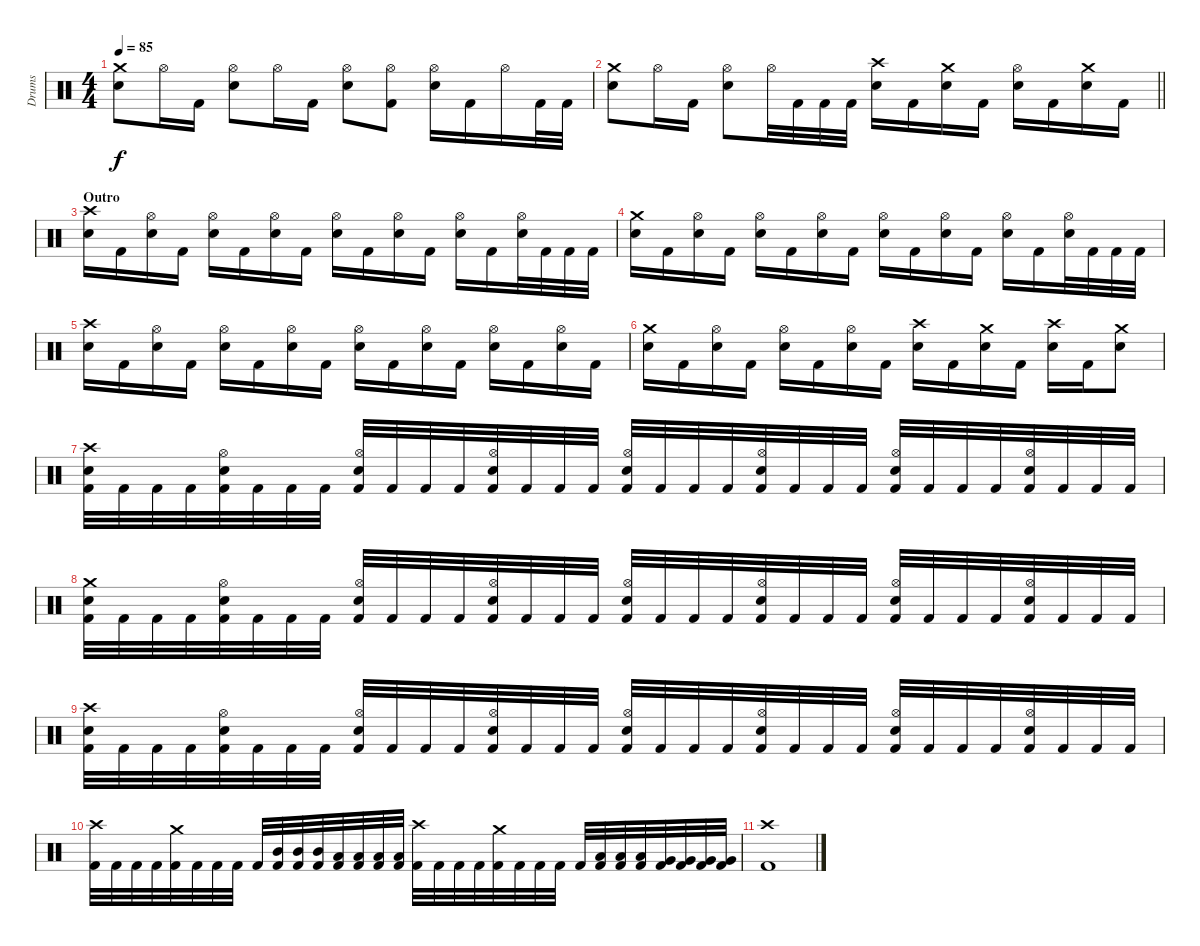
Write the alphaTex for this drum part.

\track ("Drums" "Drums") {instrument percussion}
\staff {score}
\articulation defaults
\ts (4 4)
\tempo 85
\clef neutral
\ks c
("Crash medium (hit)" "Electric Snare (hit)").8{dy f} "Hi-Hat (open)".16 "Kick (hit) 2".16 ("Hi-Hat (open)" "Electric Snare (hit)").8 "Hi-Hat (open)".16 "Kick (hit) 2".16 ("Hi-Hat (open)" "Electric Snare (hit)").8 ("Hi-Hat (open)" "Kick (hit) 2").8 ("Hi-Hat (open)" "Electric Snare (hit)").16 "Kick (hit) 2".16 "Hi-Hat (open)".16 "Kick (hit) 2".32 "Kick (hit) 2".32 |
\barLineRight lightlight
("Crash medium (hit)" "Electric Snare (hit)").8 "Hi-Hat (open)".16 "Kick (hit) 2".16 ("Hi-Hat (open)" "Electric Snare (hit)").8 "Hi-Hat (open)".32 "Kick (hit) 2".32 "Kick (hit) 2".32 "Kick (hit) 2".32 ("Crash high (hit)" "Electric Snare (hit)").16 "Kick (hit) 2".16 ("Crash medium (hit)" "Electric Snare (hit)").16 "Kick (hit) 2".16 ("Hi-Hat (open)" "Electric Snare (hit)").16 "Kick (hit) 2".16 ("Crash medium (hit)" "Electric Snare (hit)").16 "Kick (hit) 2".16 |
\section ("" "Outro")
("Crash high (hit)" "Electric Snare (hit)").16 "Kick (hit) 2".16 ("Hi-Hat (open)" "Electric Snare (hit)").16 "Kick (hit) 2".16 ("Hi-Hat (open)" "Electric Snare (hit)").16 "Kick (hit) 2".16 ("Hi-Hat (open)" "Electric Snare (hit)").16 "Kick (hit) 2".16 ("Hi-Hat (open)" "Electric Snare (hit)").16 "Kick (hit) 2".16 ("Hi-Hat (open)" "Electric Snare (hit)").16 "Kick (hit) 2".16 ("Hi-Hat (open)" "Electric Snare (hit)").16 "Kick (hit) 2".16 ("Hi-Hat (open)" "Electric Snare (hit)").32 "Kick (hit) 2".32 "Kick (hit) 2".32 "Kick (hit) 2".32 |
("Crash medium (hit)" "Electric Snare (hit)").16 "Kick (hit) 2".16 ("Hi-Hat (open)" "Electric Snare (hit)").16 "Kick (hit) 2".16 ("Hi-Hat (open)" "Electric Snare (hit)").16 "Kick (hit) 2".16 ("Hi-Hat (open)" "Electric Snare (hit)").16 "Kick (hit) 2".16 ("Hi-Hat (open)" "Electric Snare (hit)").16 "Kick (hit) 2".16 ("Hi-Hat (open)" "Electric Snare (hit)").16 "Kick (hit) 2".16 ("Hi-Hat (open)" "Electric Snare (hit)").16 "Kick (hit) 2".16 ("Hi-Hat (open)" "Electric Snare (hit)").32 "Kick (hit) 2".32 "Kick (hit) 2".32 "Kick (hit) 2".32 |
("Crash high (hit)" "Electric Snare (hit)").16 "Kick (hit) 2".16 ("Hi-Hat (open)" "Electric Snare (hit)").16 "Kick (hit) 2".16 ("Hi-Hat (open)" "Electric Snare (hit)").16 "Kick (hit) 2".16 ("Hi-Hat (open)" "Electric Snare (hit)").16 "Kick (hit) 2".16 ("Hi-Hat (open)" "Electric Snare (hit)").16 "Kick (hit) 2".16 ("Hi-Hat (open)" "Electric Snare (hit)").16 "Kick (hit) 2".16 ("Hi-Hat (open)" "Electric Snare (hit)").16 "Kick (hit) 2".16 ("Hi-Hat (open)" "Electric Snare (hit)").16 "Kick (hit) 2".16 |
("Crash medium (hit)" "Electric Snare (hit)").16 "Kick (hit) 2".16 ("Hi-Hat (open)" "Electric Snare (hit)").16 "Kick (hit) 2".16 ("Hi-Hat (open)" "Electric Snare (hit)").16 "Kick (hit) 2".16 ("Hi-Hat (open)" "Electric Snare (hit)").16 "Kick (hit) 2".16 ("Crash high (hit)" "Electric Snare (hit)").16 "Kick (hit) 2".16 ("Crash medium (hit)" "Electric Snare (hit)").16 "Kick (hit) 2".16 ("Crash high (hit)" "Electric Snare (hit)").16 "Kick (hit) 2".16 ("Crash medium (hit)" "Electric Snare (hit)").8 |
("Crash high (hit)" "Electric Snare (hit)" "Kick (hit) 2").32 "Kick (hit) 2".32 "Kick (hit) 2".32 "Kick (hit) 2".32 ("Hi-Hat (open)" "Electric Snare (hit)" "Kick (hit) 2").32 "Kick (hit) 2".32 "Kick (hit) 2".32 "Kick (hit) 2".32 ("Hi-Hat (open)" "Electric Snare (hit)" "Kick (hit) 2").32 "Kick (hit) 2".32 "Kick (hit) 2".32 "Kick (hit) 2".32 ("Hi-Hat (open)" "Electric Snare (hit)" "Kick (hit) 2").32 "Kick (hit) 2".32 "Kick (hit) 2".32 "Kick (hit) 2".32 ("Hi-Hat (open)" "Electric Snare (hit)" "Kick (hit) 2").32 "Kick (hit) 2".32 "Kick (hit) 2".32 "Kick (hit) 2".32 ("Hi-Hat (open)" "Electric Snare (hit)" "Kick (hit) 2").32 "Kick (hit) 2".32 "Kick (hit) 2".32 "Kick (hit) 2".32 ("Hi-Hat (open)" "Electric Snare (hit)" "Kick (hit) 2").32 "Kick (hit) 2".32 "Kick (hit) 2".32 "Kick (hit) 2".32 ("Hi-Hat (open)" "Electric Snare (hit)" "Kick (hit) 2").32 "Kick (hit) 2".32 "Kick (hit) 2".32 "Kick (hit) 2".32 |
("Crash medium (hit)" "Electric Snare (hit)" "Kick (hit) 2").32 "Kick (hit) 2".32 "Kick (hit) 2".32 "Kick (hit) 2".32 ("Hi-Hat (open)" "Electric Snare (hit)" "Kick (hit) 2").32 "Kick (hit) 2".32 "Kick (hit) 2".32 "Kick (hit) 2".32 ("Hi-Hat (open)" "Electric Snare (hit)" "Kick (hit) 2").32 "Kick (hit) 2".32 "Kick (hit) 2".32 "Kick (hit) 2".32 ("Hi-Hat (open)" "Electric Snare (hit)" "Kick (hit) 2").32 "Kick (hit) 2".32 "Kick (hit) 2".32 "Kick (hit) 2".32 ("Hi-Hat (open)" "Electric Snare (hit)" "Kick (hit) 2").32 "Kick (hit) 2".32 "Kick (hit) 2".32 "Kick (hit) 2".32 ("Hi-Hat (open)" "Electric Snare (hit)" "Kick (hit) 2").32 "Kick (hit) 2".32 "Kick (hit) 2".32 "Kick (hit) 2".32 ("Hi-Hat (open)" "Electric Snare (hit)" "Kick (hit) 2").32 "Kick (hit) 2".32 "Kick (hit) 2".32 "Kick (hit) 2".32 ("Hi-Hat (open)" "Electric Snare (hit)" "Kick (hit) 2").32 "Kick (hit) 2".32 "Kick (hit) 2".32 "Kick (hit) 2".32 |
("Crash high (hit)" "Electric Snare (hit)" "Kick (hit) 2").32 "Kick (hit) 2".32 "Kick (hit) 2".32 "Kick (hit) 2".32 ("Hi-Hat (open)" "Electric Snare (hit)" "Kick (hit) 2").32 "Kick (hit) 2".32 "Kick (hit) 2".32 "Kick (hit) 2".32 ("Hi-Hat (open)" "Electric Snare (hit)" "Kick (hit) 2").32 "Kick (hit) 2".32 "Kick (hit) 2".32 "Kick (hit) 2".32 ("Hi-Hat (open)" "Electric Snare (hit)" "Kick (hit) 2").32 "Kick (hit) 2".32 "Kick (hit) 2".32 "Kick (hit) 2".32 ("Hi-Hat (open)" "Electric Snare (hit)" "Kick (hit) 2").32 "Kick (hit) 2".32 "Kick (hit) 2".32 "Kick (hit) 2".32 ("Hi-Hat (open)" "Electric Snare (hit)" "Kick (hit) 2").32 "Kick (hit) 2".32 "Kick (hit) 2".32 "Kick (hit) 2".32 ("Hi-Hat (open)" "Electric Snare (hit)" "Kick (hit) 2").32 "Kick (hit) 2".32 "Kick (hit) 2".32 "Kick (hit) 2".32 ("Hi-Hat (open)" "Electric Snare (hit)" "Kick (hit) 2").32 "Kick (hit) 2".32 "Kick (hit) 2".32 "Kick (hit) 2".32 |
("Crash high (hit)" "Kick (hit) 2").32 "Kick (hit) 2".32 "Kick (hit) 2".32 "Kick (hit) 2".32 ("Crash medium (hit)" "Kick (hit) 2").32 "Kick (hit) 2".32 "Kick (hit) 2".32 "Kick (hit) 2".32 "Kick (hit) 2".32 ("Mid Tom (hit)" "Kick (hit) 2").32 ("Mid Tom (hit)" "Kick (hit) 2").32 ("Mid Tom (hit)" "Kick (hit) 2").32 ("Low Tom (hit)" "Kick (hit) 2").32 ("Low Tom (hit)" "Kick (hit) 2").32 ("Low Tom (hit)" "Kick (hit) 2").32 ("Low Tom (hit)" "Kick (hit) 2").32 ("Crash high (hit)" "Kick (hit) 2").32 "Kick (hit) 2".32 "Kick (hit) 2".32 "Kick (hit) 2".32 ("Crash medium (hit)" "Kick (hit) 2").32 "Kick (hit) 2".32 "Kick (hit) 2".32 "Kick (hit) 2".32 "Kick (hit) 2".32 ("Low Tom (hit)" "Kick (hit) 2").32 ("Low Tom (hit)" "Kick (hit) 2").32 ("Low Tom (hit)" "Kick (hit) 2").32 ("Very Low Tom (hit)" "Kick (hit) 2").32 ("Very Low Tom (hit)" "Kick (hit) 2").32 ("Very Low Tom (hit)" "Kick (hit) 2").32 ("Very Low Tom (hit)" "Kick (hit) 2").32 |
("Crash high (hit)" "Kick (hit) 2").1
